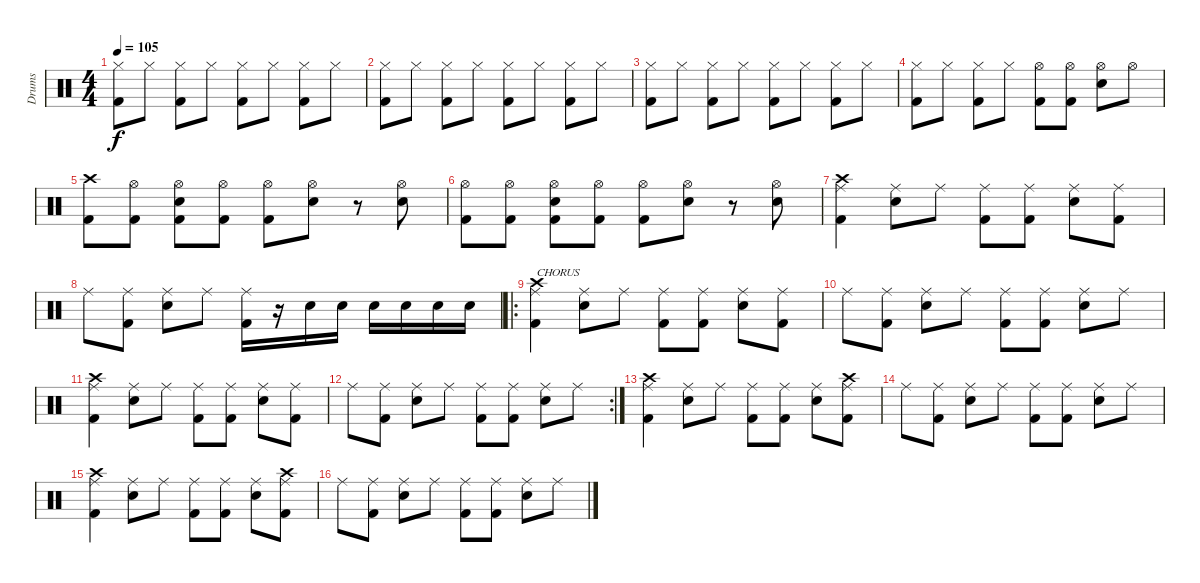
\track ("Drums" "Drums") {instrument percussion}
\staff {score}
\articulation defaults
\ts (4 4)
\tempo 105
\clef neutral
\ks c
("Hi-Hat (closed)" "Kick (hit) 2").8{dy f} "Hi-Hat (closed)".8 ("Hi-Hat (closed)" "Kick (hit) 2").8 "Hi-Hat (closed)".8 ("Hi-Hat (closed)" "Kick (hit) 2").8 "Hi-Hat (closed)".8 ("Hi-Hat (closed)" "Kick (hit) 2").8 "Hi-Hat (closed)".8 |
("Hi-Hat (closed)" "Kick (hit) 2").8 "Hi-Hat (closed)".8 ("Hi-Hat (closed)" "Kick (hit) 2").8 "Hi-Hat (closed)".8 ("Hi-Hat (closed)" "Kick (hit) 2").8 "Hi-Hat (closed)".8 ("Hi-Hat (closed)" "Kick (hit) 2").8 "Hi-Hat (closed)".8 |
("Hi-Hat (closed)" "Kick (hit) 2").8 "Hi-Hat (closed)".8 ("Hi-Hat (closed)" "Kick (hit) 2").8 "Hi-Hat (closed)".8 ("Hi-Hat (closed)" "Kick (hit) 2").8 "Hi-Hat (closed)".8 ("Hi-Hat (closed)" "Kick (hit) 2").8 "Hi-Hat (closed)".8 |
("Hi-Hat (closed)" "Kick (hit) 2").8 "Hi-Hat (closed)".8 ("Hi-Hat (closed)" "Kick (hit) 2").8 "Hi-Hat (closed)".8 ("Hi-Hat (open)" "Kick (hit) 2").8 ("Hi-Hat (open)" "Kick (hit) 2").8 ("Hi-Hat (open)" "Electric Snare (hit)").8 "Hi-Hat (open)".8 |
("Crash high (hit)" "Kick (hit) 2").8 ("Hi-Hat (open)" "Kick (hit) 2").8 ("Hi-Hat (open)" "Electric Snare (hit)" "Kick (hit) 2").8 ("Hi-Hat (open)" "Kick (hit) 2").8 ("Hi-Hat (open)" "Kick (hit) 2").8 ("Hi-Hat (open)" "Electric Snare (hit)").8 r.8 ("Hi-Hat (open)" "Electric Snare (hit)").8 |
("Hi-Hat (open)" "Kick (hit) 2").8 ("Hi-Hat (open)" "Kick (hit) 2").8 ("Hi-Hat (open)" "Electric Snare (hit)" "Kick (hit) 2").8 ("Hi-Hat (open)" "Kick (hit) 2").8 ("Hi-Hat (open)" "Kick (hit) 2").8 ("Hi-Hat (open)" "Electric Snare (hit)").8 r.8 ("Hi-Hat (open)" "Electric Snare (hit)").8 |
("Ride (middle)" "Crash high (hit)" "Kick (hit) 2").4 ("Ride (middle)" "Electric Snare (hit)").8 "Ride (middle)".8 ("Ride (middle)" "Kick (hit) 2").8 ("Ride (middle)" "Kick (hit) 2").8 ("Ride (middle)" "Electric Snare (hit)").8 ("Ride (middle)" "Kick (hit) 2").8 |
"Ride (middle)".8 ("Ride (middle)" "Kick (hit) 2").8 ("Ride (middle)" "Electric Snare (hit)").8 "Ride (middle)".8 ("Ride (middle)" "Kick (hit) 2").16 r.16 "Electric Snare (hit)".16 "Electric Snare (hit)".16 "Electric Snare (hit)".16 "Electric Snare (hit)".16 "Electric Snare (hit)".16 "Electric Snare (hit)".16 |
\ro
("Ride (middle)" "Crash high (hit)" "Kick (hit) 2").4{txt "CHORUS"} ("Ride (middle)" "Electric Snare (hit)").8 "Ride (middle)".8 ("Ride (middle)" "Kick (hit) 2").8 ("Ride (middle)" "Kick (hit) 2").8 ("Ride (middle)" "Electric Snare (hit)").8 ("Ride (middle)" "Kick (hit) 2").8 |
"Ride (middle)".8 ("Ride (middle)" "Kick (hit) 2").8 ("Ride (middle)" "Electric Snare (hit)").8 "Ride (middle)".8 ("Ride (middle)" "Kick (hit) 2").8 ("Ride (middle)" "Kick (hit) 2").8 ("Ride (middle)" "Electric Snare (hit)").8 "Ride (middle)".8 |
("Ride (middle)" "Crash high (hit)" "Kick (hit) 2").4 ("Ride (middle)" "Electric Snare (hit)").8 "Ride (middle)".8 ("Ride (middle)" "Kick (hit) 2").8 ("Ride (middle)" "Kick (hit) 2").8 ("Ride (middle)" "Electric Snare (hit)").8 ("Ride (middle)" "Kick (hit) 2").8 |
\rc 2 "Ride (middle)".8
("Ride (middle)" "Kick (hit) 2").8 ("Ride (middle)" "Electric Snare (hit)").8 "Ride (middle)".8 ("Ride (middle)" "Kick (hit) 2").8 ("Ride (middle)" "Kick (hit) 2").8 ("Ride (middle)" "Electric Snare (hit)").8 "Ride (middle)".8 |
("Ride (middle)" "Crash high (hit)" "Kick (hit) 2").4 ("Ride (middle)" "Electric Snare (hit)").8 "Ride (middle)".8 ("Ride (middle)" "Kick (hit) 2").8 ("Ride (middle)" "Kick (hit) 2").8 ("Ride (middle)" "Electric Snare (hit)").8 ("Ride (middle)" "Crash high (hit)" "Kick (hit) 2").8 |
"Ride (middle)".8 ("Ride (middle)" "Kick (hit) 2").8 ("Ride (middle)" "Electric Snare (hit)").8 "Ride (middle)".8 ("Ride (middle)" "Kick (hit) 2").8 ("Ride (middle)" "Kick (hit) 2").8 ("Ride (middle)" "Electric Snare (hit)").8 "Ride (middle)".8 |
("Ride (middle)" "Crash high (hit)" "Kick (hit) 2").4 ("Ride (middle)" "Electric Snare (hit)").8 "Ride (middle)".8 ("Ride (middle)" "Kick (hit) 2").8 ("Ride (middle)" "Kick (hit) 2").8 ("Ride (middle)" "Electric Snare (hit)").8 ("Ride (middle)" "Crash high (hit)" "Kick (hit) 2").8 |
"Ride (middle)".8 ("Ride (middle)" "Kick (hit) 2").8 ("Ride (middle)" "Electric Snare (hit)").8 "Ride (middle)".8 ("Ride (middle)" "Kick (hit) 2").8 ("Ride (middle)" "Kick (hit) 2").8 ("Ride (middle)" "Electric Snare (hit)").8 "Ride (middle)".8
